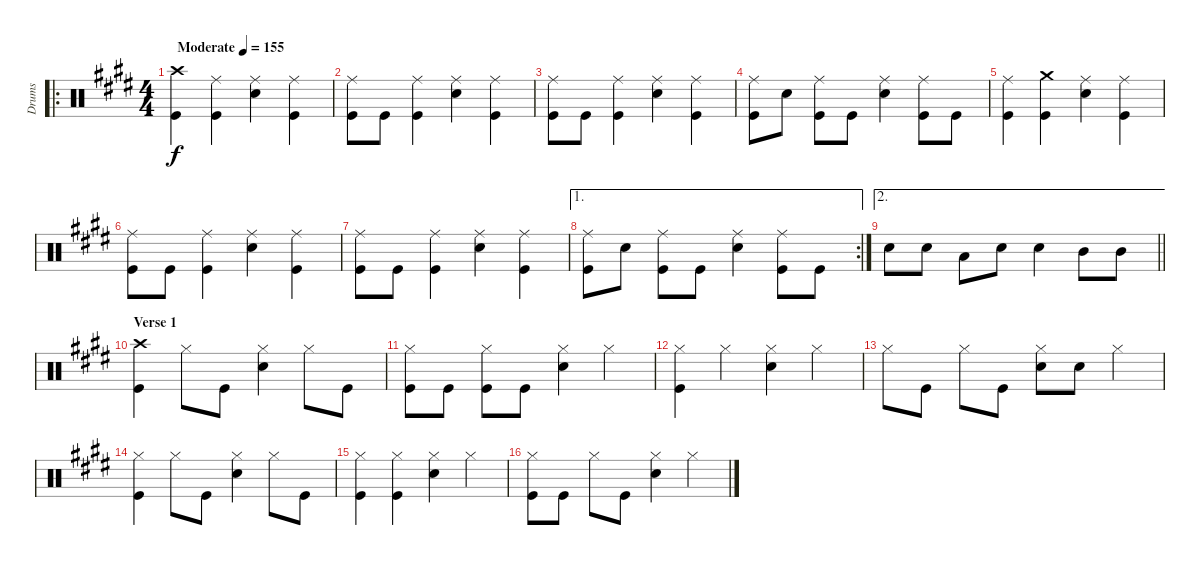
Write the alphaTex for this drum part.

\track ("Drums" "Drums") {instrument percussion}
\staff {score}
\articulation defaults
\ro
\ts (4 4)
\tempo (155 "Moderate")
\clef neutral
\ks e
("Crash high (hit)" "Kick (hit)").4{dy f} ("Ride (middle)" "Kick (hit)").4 ("Ride (middle)" "Snare (hit) 2").4 ("Ride (middle)" "Kick (hit)").4 |
("Ride (middle)" "Kick (hit)").8 "Kick (hit)".8 ("Ride (middle)" "Kick (hit)").4 ("Ride (middle)" "Snare (hit) 2").4 ("Ride (middle)" "Kick (hit)").4 |
("Ride (middle)" "Kick (hit)").8 "Kick (hit)".8 ("Ride (middle)" "Kick (hit)").4 ("Ride (middle)" "Snare (hit) 2").4 ("Ride (middle)" "Kick (hit)").4 |
("Ride (middle)" "Kick (hit)").8 "Snare (hit) 2".8 ("Ride (middle)" "Kick (hit)").8 "Kick (hit)".8 ("Ride (middle)" "Snare (hit) 2").4 ("Ride (middle)" "Kick (hit)").8 "Kick (hit)".8 |
("Ride (middle)" "Kick (hit)").4 ("Crash medium (hit)" "Kick (hit)").4 ("Ride (middle)" "Snare (hit) 2").4 ("Ride (middle)" "Kick (hit)").4 |
("Ride (middle)" "Kick (hit)").8 "Kick (hit)".8 ("Ride (middle)" "Kick (hit)").4 ("Ride (middle)" "Snare (hit) 2").4 ("Ride (middle)" "Kick (hit)").4 |
("Ride (middle)" "Kick (hit)").8 "Kick (hit)".8 ("Ride (middle)" "Kick (hit)").4 ("Ride (middle)" "Snare (hit) 2").4 ("Ride (middle)" "Kick (hit)").4 |
\ae 1
\rc 2
("Ride (middle)" "Kick (hit)").8 "Snare (hit) 2".8 ("Ride (middle)" "Kick (hit)").8 "Kick (hit)".8 ("Ride (middle)" "Snare (hit) 2").4 ("Ride (middle)" "Kick (hit)").8 "Kick (hit)".8 |
\ae 2
\barLineRight lightlight "Snare (hit) 2".8 "Snare (hit) 2".8 "Low Tom (hit)".8 "Snare (hit) 2".8 "Snare (hit) 2".4 "Mid Tom (hit)".8 "Mid Tom (hit)".8
|
\section ("" "Verse 1")
("Crash high (hit)" "Kick (hit)").4 "Hi-Hat (closed)".8 "Kick (hit)".8 ("Hi-Hat (closed)" "Snare (hit) 2").4 "Hi-Hat (closed)".8 "Kick (hit)".8 |
("Hi-Hat (closed)" "Kick (hit)").8 "Kick (hit)".8 ("Hi-Hat (closed)" "Kick (hit)").8 "Kick (hit)".8 ("Hi-Hat (closed)" "Snare (hit) 2").4 "Hi-Hat (closed)".4 |
("Hi-Hat (closed)" "Kick (hit)").4 "Hi-Hat (closed)".4 ("Hi-Hat (closed)" "Snare (hit) 2").4 "Hi-Hat (closed)".4 |
"Hi-Hat (closed)".8 "Kick (hit)".8 "Hi-Hat (closed)".8 "Kick (hit)".8 ("Hi-Hat (closed)" "Snare (hit) 2").8 "Snare (hit) 2".8 "Hi-Hat (closed)".4 |
("Hi-Hat (closed)" "Kick (hit)").4 "Hi-Hat (closed)".8 "Kick (hit)".8 ("Hi-Hat (closed)" "Snare (hit) 2").4 "Hi-Hat (closed)".8 "Kick (hit)".8 |
("Hi-Hat (closed)" "Kick (hit)").4 ("Hi-Hat (closed)" "Kick (hit)").4 ("Hi-Hat (closed)" "Snare (hit) 2").4 "Hi-Hat (closed)".4 |
("Hi-Hat (closed)" "Kick (hit)").8 "Kick (hit)".8 "Hi-Hat (closed)".8 "Kick (hit)".8 ("Hi-Hat (closed)" "Snare (hit) 2").4 "Hi-Hat (closed)".4
